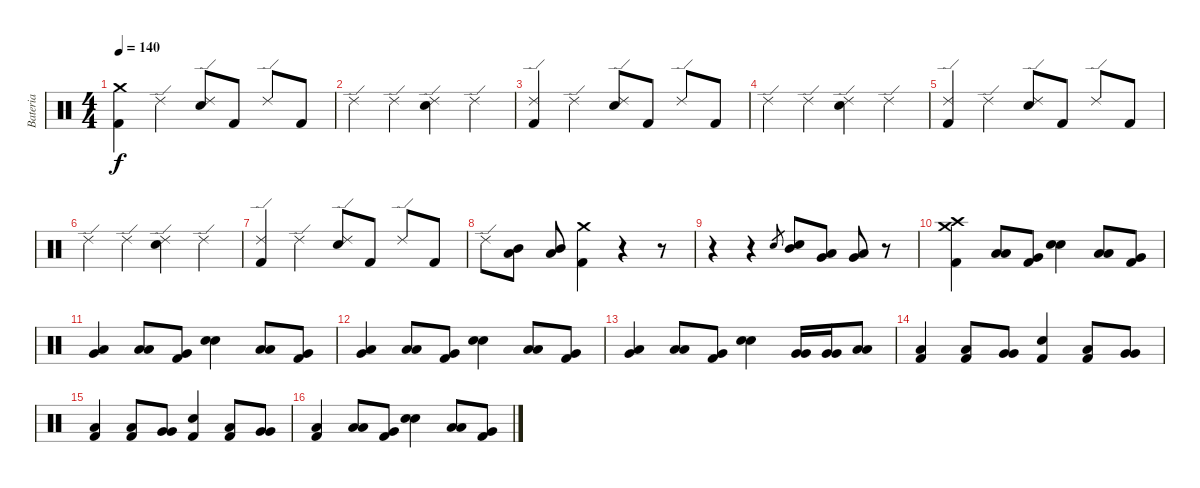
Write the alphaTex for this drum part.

\track ("Bateria" "Bateria") {instrument percussion}
\staff {score}
\articulation defaults
\ts (4 4)
\tempo 140
\clef neutral
\ks c
("Crash medium (hit)" "Kick (hit) 2").4{dy f} "Ride (edge) 2".4 ("Ride (edge) 2" "Electric Snare (hit)").8 "Kick (hit) 2".8 "Ride (edge) 2".8 "Kick (hit) 2".8 |
"Ride (edge) 2".4 "Ride (edge) 2".4 ("Ride (edge) 2" "Electric Snare (hit)").4 "Ride (edge) 2".4 |
("Ride (edge) 2" "Kick (hit) 2").4 "Ride (edge) 2".4 ("Ride (edge) 2" "Electric Snare (hit)").8 "Kick (hit) 2".8 "Ride (edge) 2".8 "Kick (hit) 2".8 |
"Ride (edge) 2".4 "Ride (edge) 2".4 ("Ride (edge) 2" "Electric Snare (hit)").4 "Ride (edge) 2".4 |
("Ride (edge) 2" "Kick (hit) 2").4 "Ride (edge) 2".4 ("Ride (edge) 2" "Electric Snare (hit)").8 "Kick (hit) 2".8 "Ride (edge) 2".8 "Kick (hit) 2".8 |
"Ride (edge) 2".4 "Ride (edge) 2".4 ("Ride (edge) 2" "Electric Snare (hit)").4 "Ride (edge) 2".4 |
("Ride (edge) 2" "Kick (hit) 2").4 "Ride (edge) 2".4 ("Ride (edge) 2" "Electric Snare (hit)").8 "Kick (hit) 2".8 "Ride (edge) 2".8 "Kick (hit) 2".8 |
"Ride (edge) 2".8 ("Mid Tom (hit)" "Low Tom (hit)").8 ("Mid Tom (hit)" "Low Tom (hit)").8 ("Crash medium (hit)" "Kick (hit) 2").4 r.4 r.8 |
r.4 r.4 "Snare (hit)".8{gr} ("Mid Tom (hit)" "Electric Snare (hit)").8 ("Very Low Tom (hit)" "Low Tom (hit)").8 ("Very Low Tom (hit)" "Low Floor Tom (hit)").8 r.8 |
("Crash medium (hit)" "Crash high (hit)" "Kick (hit) 2").4 ("Low Tom (hit)" "Low Tom (hit)").8 ("Kick (hit) 2" "Very Low Tom (hit)").8 ("Electric Snare (hit)" "Electric Snare (hit)").4 ("Low Tom (hit)" "Low Tom (hit)").8 ("Kick (hit) 2" "Very Low Tom (hit)").8 |
("Very Low Tom (hit)" "Low Floor Tom (hit)").4 ("Low Tom (hit)" "Low Tom (hit)").8 ("Kick (hit) 2" "Very Low Tom (hit)").8 ("Electric Snare (hit)" "Electric Snare (hit)").4 ("Low Tom (hit)" "Low Tom (hit)").8 ("Kick (hit) 2" "Very Low Tom (hit)").8 |
("Very Low Tom (hit)" "Low Floor Tom (hit)").4 ("Low Tom (hit)" "Low Tom (hit)").8 ("Kick (hit) 2" "Very Low Tom (hit)").8 ("Electric Snare (hit)" "Electric Snare (hit)").4 ("Low Tom (hit)" "Low Tom (hit)").8 ("Kick (hit) 2" "Very Low Tom (hit)").8 |
("Very Low Tom (hit)" "Low Floor Tom (hit)").4 ("Low Tom (hit)" "Low Tom (hit)").8 ("Kick (hit) 2" "Very Low Tom (hit)").8 ("Electric Snare (hit)" "Electric Snare (hit)").4 ("Very Low Tom (hit)" "Very Low Tom (hit)").16 ("Very Low Tom (hit)" "Very Low Tom (hit)").16 ("Low Tom (hit)" "Low Tom (hit)").8 |
("Kick (hit) 2" "Low Floor Tom (hit)").4 ("Kick (hit) 2" "Low Tom (hit)").8 ("Very Low Tom (hit)" "Very Low Tom (hit)").8 ("Kick (hit) 2" "Electric Snare (hit)").4 ("Kick (hit) 2" "Low Tom (hit)").8 ("Very Low Tom (hit)" "Very Low Tom (hit)").8 |
("Kick (hit) 2" "Low Floor Tom (hit)").4 ("Kick (hit) 2" "Low Tom (hit)").8 ("Very Low Tom (hit)" "Very Low Tom (hit)").8 ("Kick (hit) 2" "Electric Snare (hit)").4 ("Kick (hit) 2" "Low Tom (hit)").8 ("Very Low Tom (hit)" "Very Low Tom (hit)").8 |
("Kick (hit) 2" "Low Floor Tom (hit)").4 ("Low Tom (hit)" "Low Tom (hit)").8 ("Kick (hit) 2" "Very Low Tom (hit)").8 ("Electric Snare (hit)" "Electric Snare (hit)").4 ("Low Tom (hit)" "Low Tom (hit)").8 ("Kick (hit) 2" "Very Low Tom (hit)").8
